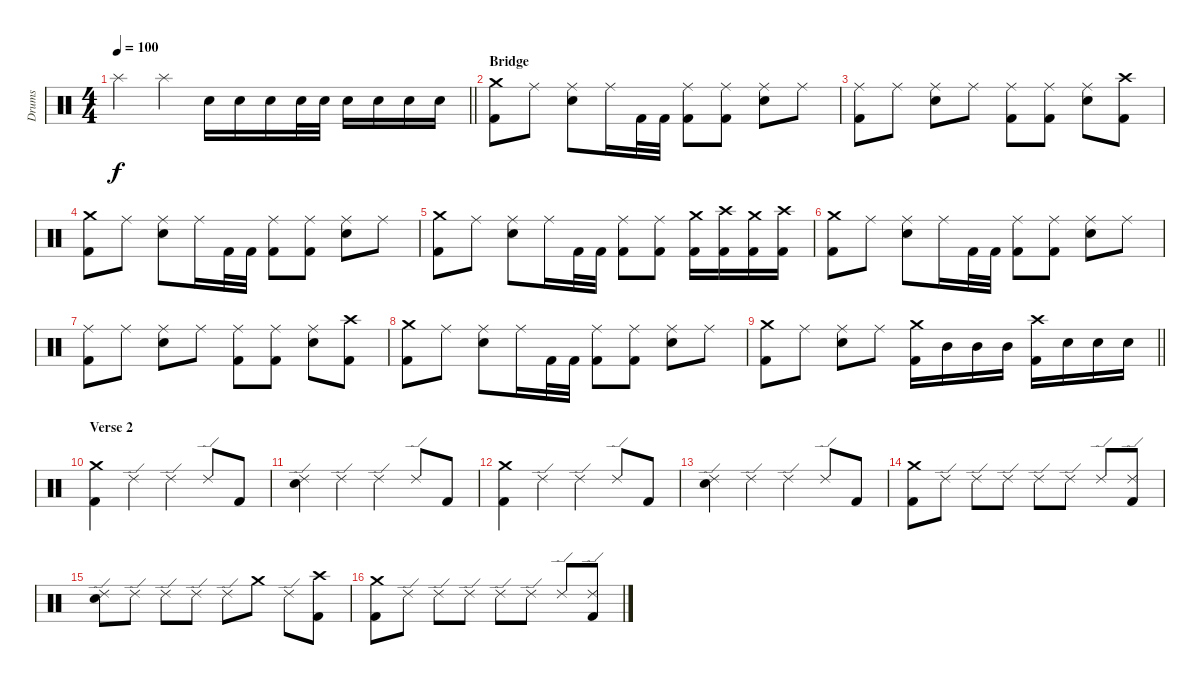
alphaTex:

\track ("Drums" "Drums") {instrument percussion}
\staff {score}
\articulation defaults
\ts (4 4)
\tempo 100
\clef neutral
\barLineRight lightlight
\ks c "Splash (hit)".4{dy f} "Splash (hit)".4 "Snare (hit) 2".16 "Snare (hit) 2".16 "Snare (hit) 2".16 "Snare (hit) 2".32 "Snare (hit) 2".32 "Snare (hit) 2".16 "Snare (hit) 2".16 "Snare (hit) 2".16 "Snare (hit) 2".16
|
\section ("" "Bridge")
("Kick (hit) 2" "Crash medium (hit)").8 "Ride (middle)".8 ("Snare (hit) 2" "Ride (middle)").8 "Ride (middle)".16 "Kick (hit) 2".32 "Kick (hit) 2".32 ("Kick (hit) 2" "Ride (middle)").8 ("Kick (hit) 2" "Ride (middle)").8 ("Snare (hit) 2" "Ride (middle)").8 "Ride (middle)".8 |
("Kick (hit) 2" "Ride (middle)").8 "Ride (middle)".8 ("Snare (hit) 2" "Ride (middle)").8 "Ride (middle)".8 ("Kick (hit) 2" "Ride (middle)").8 ("Kick (hit) 2" "Ride (middle)").8 ("Snare (hit) 2" "Ride (middle)").8 ("Kick (hit) 2" "Crash high (hit)").8 |
("Kick (hit) 2" "Crash medium (hit)").8 "Ride (middle)".8 ("Snare (hit) 2" "Ride (middle)").8 "Ride (middle)".16 "Kick (hit) 2".32 "Kick (hit) 2".32 ("Kick (hit) 2" "Ride (middle)").8 ("Kick (hit) 2" "Ride (middle)").8 ("Snare (hit) 2" "Ride (middle)").8 "Ride (middle)".8 |
("Kick (hit) 2" "Crash medium (hit)").8 "Ride (middle)".8 ("Snare (hit) 2" "Ride (middle)").8 "Ride (middle)".16 "Kick (hit) 2".32 "Kick (hit) 2".32 ("Kick (hit) 2" "Ride (middle)").8 ("Kick (hit) 2" "Ride (middle)").8 ("Kick (hit) 2" "Crash medium (hit)").16 ("Kick (hit) 2" "Crash high (hit)").16 ("Kick (hit) 2" "Crash medium (hit)").16 ("Kick (hit) 2" "Crash high (hit)").16 |
("Kick (hit) 2" "Crash medium (hit)").8 "Ride (middle)".8 ("Snare (hit) 2" "Ride (middle)").8 "Ride (middle)".16 "Kick (hit) 2".32 "Kick (hit) 2".32 ("Kick (hit) 2" "Ride (middle)").8 ("Kick (hit) 2" "Ride (middle)").8 ("Snare (hit) 2" "Ride (middle)").8 "Ride (middle)".8 |
("Kick (hit) 2" "Ride (middle)").8 "Ride (middle)".8 ("Snare (hit) 2" "Ride (middle)").8 "Ride (middle)".8 ("Kick (hit) 2" "Ride (middle)").8 ("Kick (hit) 2" "Ride (middle)").8 ("Snare (hit) 2" "Ride (middle)").8 ("Kick (hit) 2" "Crash high (hit)").8 |
("Kick (hit) 2" "Crash medium (hit)").8 "Ride (middle)".8 ("Snare (hit) 2" "Ride (middle)").8 "Ride (middle)".16 "Kick (hit) 2".32 "Kick (hit) 2".32 ("Kick (hit) 2" "Ride (middle)").8 ("Kick (hit) 2" "Ride (middle)").8 ("Snare (hit) 2" "Ride (middle)").8 "Ride (middle)".8 |
\barLineRight lightlight
("Kick (hit) 2" "Crash medium (hit)").8 "Ride (middle)".8 ("Snare (hit) 2" "Ride (middle)").8 "Ride (middle)".8 ("Kick (hit) 2" "Crash medium (hit)").16 "Mid Tom (hit)".16 "Mid Tom (hit)".16 "Mid Tom (hit)".16 ("Kick (hit) 2" "Crash high (hit)").16 "Snare (hit) 2".16 "Snare (hit) 2".16 "Snare (hit) 2".16 |
\section ("" "Verse 2")
("Kick (hit) 2" "Crash medium (hit)").4 "Ride (edge) 2".4 "Ride (edge) 2".4 "Ride (edge) 2".8 "Kick (hit) 2".8 |
("Snare (hit) 2" "Ride (edge) 2").4 "Ride (edge) 2".4 "Ride (edge) 2".4 "Ride (edge) 2".8 "Kick (hit) 2".8 |
("Kick (hit) 2" "Crash medium (hit)").4 "Ride (edge) 2".4 "Ride (edge) 2".4 "Ride (edge) 2".8 "Kick (hit) 2".8 |
("Snare (hit) 2" "Ride (edge) 2").4 "Ride (edge) 2".4 "Ride (edge) 2".4 "Ride (edge) 2".8 "Kick (hit) 2".8 |
("Kick (hit) 2" "Crash medium (hit)").8 "Ride (edge) 2".8 "Ride (edge) 2".8 "Ride (edge) 2".8 "Ride (edge) 2".8 "Ride (edge) 2".8 "Ride (edge) 2".8 ("Kick (hit) 2" "Ride (edge) 2").8 |
("Snare (hit) 2" "Ride (edge) 2").8 "Ride (edge) 2".8 "Ride (edge) 2".8 "Ride (edge) 2".8 "Ride (edge) 2".8 "Crash medium (hit)".8 "Ride (edge) 2".8 ("Kick (hit) 2" "Crash high (hit)").8 |
("Kick (hit) 2" "Crash medium (hit)").8 "Ride (edge) 2".8 "Ride (edge) 2".8 "Ride (edge) 2".8 "Ride (edge) 2".8 "Ride (edge) 2".8 "Ride (edge) 2".8 ("Kick (hit) 2" "Ride (edge) 2").8
